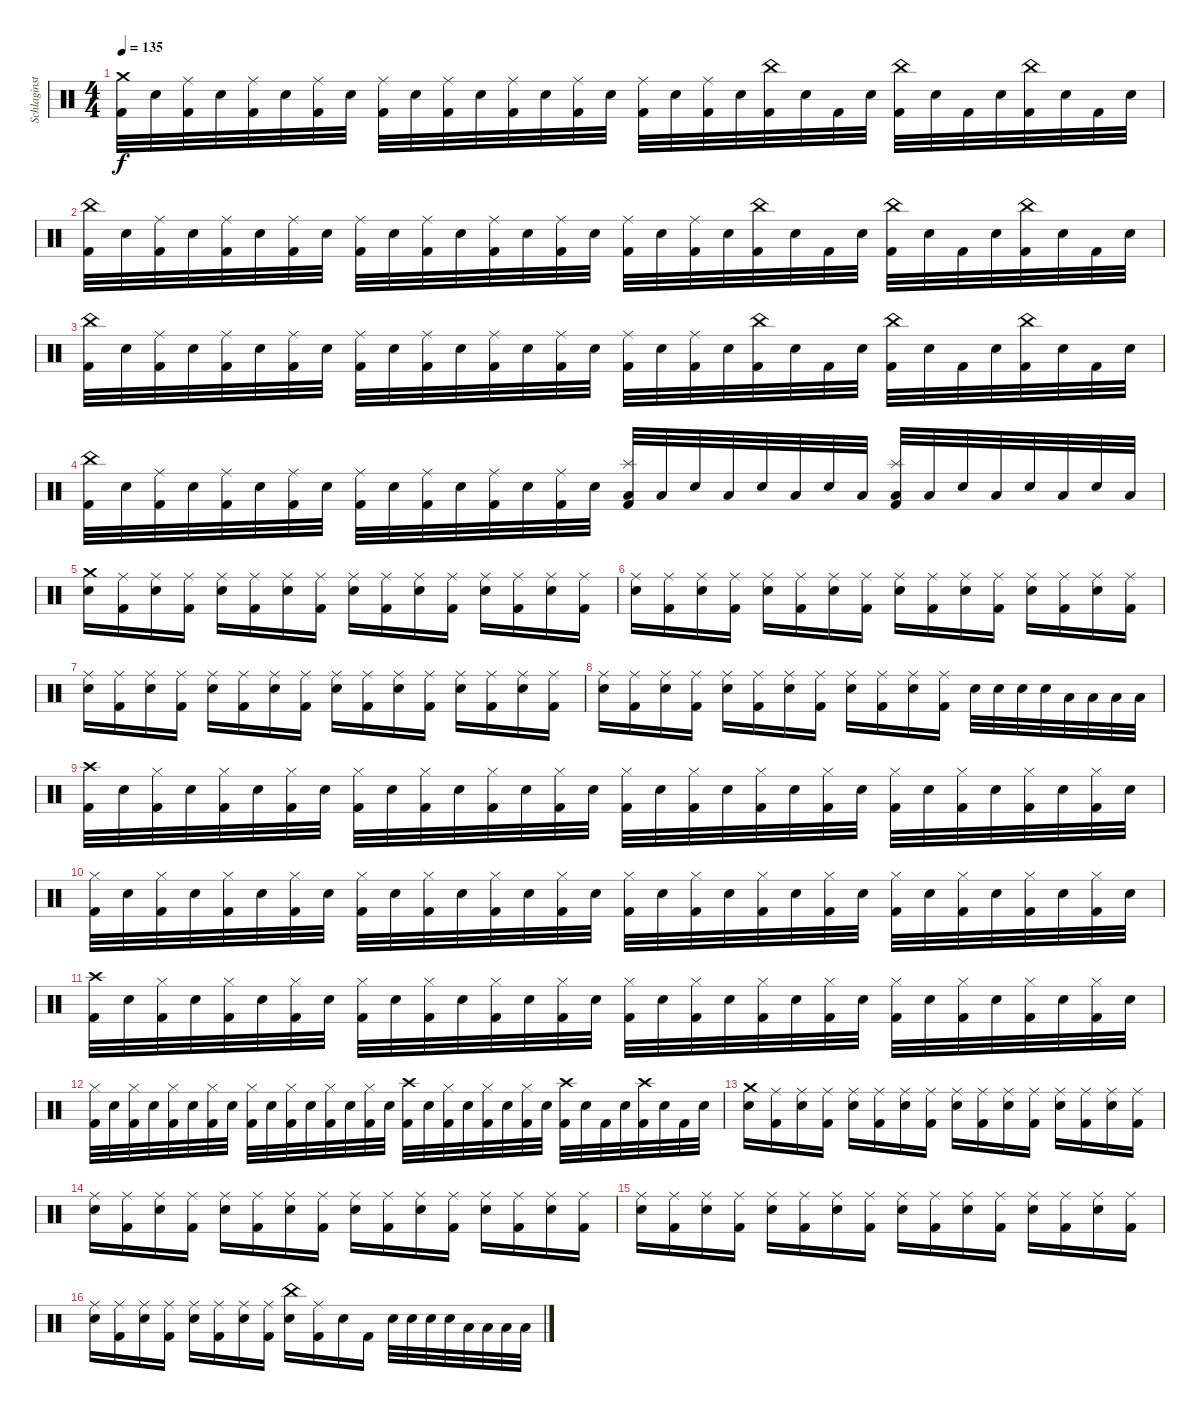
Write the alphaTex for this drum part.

\track ("Schlaginstrumente - Auswahl" "Schlaginst") {instrument percussion}
\staff {score}
\articulation defaults
\ts (4 4)
\tempo 135
\clef neutral
\ks c
("Crash medium (hit)" "Kick (hit) 2").32{dy f} "Electric Snare (hit)".32 ("Ride (middle)" "Kick (hit) 2").32 "Electric Snare (hit)".32 ("Ride (middle)" "Kick (hit) 2").32 "Electric Snare (hit)".32 ("Ride (middle)" "Kick (hit) 2").32 "Electric Snare (hit)".32 ("Ride (middle)" "Kick (hit) 2").32 "Electric Snare (hit)".32 ("Ride (middle)" "Kick (hit) 2").32 "Electric Snare (hit)".32 ("Ride (middle)" "Kick (hit) 2").32 "Electric Snare (hit)".32 ("Ride (middle)" "Kick (hit) 2").32 "Electric Snare (hit)".32 ("Ride (middle)" "Kick (hit) 2").32 "Electric Snare (hit)".32 ("Ride (middle)" "Kick (hit) 2").32 "Electric Snare (hit)".32 ("China (hit)" "Kick (hit) 2").32 "Electric Snare (hit)".32 "Kick (hit) 2".32 "Electric Snare (hit)".32 ("China (hit)" "Kick (hit) 2").32 "Electric Snare (hit)".32 "Kick (hit) 2".32 "Electric Snare (hit)".32 ("China (hit)" "Kick (hit) 2").32 "Electric Snare (hit)".32 "Kick (hit) 2".32 "Electric Snare (hit)".32 |
("China (hit)" "Kick (hit) 2").32 "Electric Snare (hit)".32 ("Ride (middle)" "Kick (hit) 2").32 "Electric Snare (hit)".32 ("Ride (middle)" "Kick (hit) 2").32 "Electric Snare (hit)".32 ("Ride (middle)" "Kick (hit) 2").32 "Electric Snare (hit)".32 ("Ride (middle)" "Kick (hit) 2").32 "Electric Snare (hit)".32 ("Ride (middle)" "Kick (hit) 2").32 "Electric Snare (hit)".32 ("Ride (middle)" "Kick (hit) 2").32 "Electric Snare (hit)".32 ("Ride (middle)" "Kick (hit) 2").32 "Electric Snare (hit)".32 ("Ride (middle)" "Kick (hit) 2").32 "Electric Snare (hit)".32 ("Ride (middle)" "Kick (hit) 2").32 "Electric Snare (hit)".32 ("China (hit)" "Kick (hit) 2").32 "Electric Snare (hit)".32 "Kick (hit) 2".32 "Electric Snare (hit)".32 ("China (hit)" "Kick (hit) 2").32 "Electric Snare (hit)".32 "Kick (hit) 2".32 "Electric Snare (hit)".32 ("China (hit)" "Kick (hit) 2").32 "Electric Snare (hit)".32 "Kick (hit) 2".32 "Electric Snare (hit)".32 |
("China (hit)" "Kick (hit) 2").32 "Electric Snare (hit)".32 ("Ride (middle)" "Kick (hit) 2").32 "Electric Snare (hit)".32 ("Ride (middle)" "Kick (hit) 2").32 "Electric Snare (hit)".32 ("Ride (middle)" "Kick (hit) 2").32 "Electric Snare (hit)".32 ("Ride (middle)" "Kick (hit) 2").32 "Electric Snare (hit)".32 ("Ride (middle)" "Kick (hit) 2").32 "Electric Snare (hit)".32 ("Ride (middle)" "Kick (hit) 2").32 "Electric Snare (hit)".32 ("Ride (middle)" "Kick (hit) 2").32 "Electric Snare (hit)".32 ("Ride (middle)" "Kick (hit) 2").32 "Electric Snare (hit)".32 ("Ride (middle)" "Kick (hit) 2").32 "Electric Snare (hit)".32 ("China (hit)" "Kick (hit) 2").32 "Electric Snare (hit)".32 "Kick (hit) 2".32 "Electric Snare (hit)".32 ("China (hit)" "Kick (hit) 2").32 "Electric Snare (hit)".32 "Kick (hit) 2".32 "Electric Snare (hit)".32 ("China (hit)" "Kick (hit) 2").32 "Electric Snare (hit)".32 "Kick (hit) 2".32 "Electric Snare (hit)".32 |
("China (hit)" "Kick (hit) 2").32 "Electric Snare (hit)".32 ("Ride (middle)" "Kick (hit) 2").32 "Electric Snare (hit)".32 ("Ride (middle)" "Kick (hit) 2").32 "Electric Snare (hit)".32 ("Ride (middle)" "Kick (hit) 2").32 "Electric Snare (hit)".32 ("Ride (middle)" "Kick (hit) 2").32 "Electric Snare (hit)".32 ("Ride (middle)" "Kick (hit) 2").32 "Electric Snare (hit)".32 ("Ride (middle)" "Kick (hit) 2").32 "Electric Snare (hit)".32 ("Ride (middle)" "Kick (hit) 2").32 "Electric Snare (hit)".32 ("Splash (hit)" "Low Tom (hit)" "Kick (hit) 2").32 "Low Tom (hit)".32 "Electric Snare (hit)".32 "Low Tom (hit)".32 "Electric Snare (hit)".32 "Low Tom (hit)".32 "Electric Snare (hit)".32 "Low Tom (hit)".32 ("Splash (hit)" "Low Tom (hit)" "Kick (hit) 2").32 "Low Tom (hit)".32 "Electric Snare (hit)".32 "Low Tom (hit)".32 "Electric Snare (hit)".32 "Low Tom (hit)".32 "Electric Snare (hit)".32 "Low Tom (hit)".32 |
("Crash medium (hit)" "Electric Snare (hit)").16 ("Ride (middle)" "Kick (hit) 2").16 ("Ride (middle)" "Electric Snare (hit)").16 ("Ride (middle)" "Kick (hit) 2").16 ("Ride (middle)" "Electric Snare (hit)").16 ("Ride (middle)" "Kick (hit) 2").16 ("Ride (middle)" "Electric Snare (hit)").16 ("Ride (middle)" "Kick (hit) 2").16 ("Ride (middle)" "Electric Snare (hit)").16 ("Ride (middle)" "Kick (hit) 2").16 ("Ride (middle)" "Electric Snare (hit)").16 ("Ride (middle)" "Kick (hit) 2").16 ("Ride (middle)" "Electric Snare (hit)").16 ("Ride (middle)" "Kick (hit) 2").16 ("Ride (middle)" "Electric Snare (hit)").16 ("Ride (middle)" "Kick (hit) 2").16 |
("Ride (middle)" "Electric Snare (hit)").16 ("Ride (middle)" "Kick (hit) 2").16 ("Ride (middle)" "Electric Snare (hit)").16 ("Ride (middle)" "Kick (hit) 2").16 ("Ride (middle)" "Electric Snare (hit)").16 ("Ride (middle)" "Kick (hit) 2").16 ("Ride (middle)" "Electric Snare (hit)").16 ("Ride (middle)" "Kick (hit) 2").16 ("Ride (middle)" "Electric Snare (hit)").16 ("Ride (middle)" "Kick (hit) 2").16 ("Ride (middle)" "Electric Snare (hit)").16 ("Ride (middle)" "Kick (hit) 2").16 ("Ride (middle)" "Electric Snare (hit)").16 ("Ride (middle)" "Kick (hit) 2").16 ("Ride (middle)" "Electric Snare (hit)").16 ("Ride (middle)" "Kick (hit) 2").16 |
("Ride (middle)" "Electric Snare (hit)").16 ("Ride (middle)" "Kick (hit) 2").16 ("Ride (middle)" "Electric Snare (hit)").16 ("Ride (middle)" "Kick (hit) 2").16 ("Ride (middle)" "Electric Snare (hit)").16 ("Ride (middle)" "Kick (hit) 2").16 ("Ride (middle)" "Electric Snare (hit)").16 ("Ride (middle)" "Kick (hit) 2").16 ("Ride (middle)" "Electric Snare (hit)").16 ("Ride (middle)" "Kick (hit) 2").16 ("Ride (middle)" "Electric Snare (hit)").16 ("Ride (middle)" "Kick (hit) 2").16 ("Ride (middle)" "Electric Snare (hit)").16 ("Ride (middle)" "Kick (hit) 2").16 ("Ride (middle)" "Electric Snare (hit)").16 ("Ride (middle)" "Kick (hit) 2").16 |
("Ride (middle)" "Electric Snare (hit)").16 ("Ride (middle)" "Kick (hit) 2").16 ("Ride (middle)" "Electric Snare (hit)").16 ("Ride (middle)" "Kick (hit) 2").16 ("Ride (middle)" "Electric Snare (hit)").16 ("Ride (middle)" "Kick (hit) 2").16 ("Ride (middle)" "Electric Snare (hit)").16 ("Ride (middle)" "Kick (hit) 2").16 ("Ride (middle)" "Electric Snare (hit)").16 ("Ride (middle)" "Kick (hit) 2").16 ("Ride (middle)" "Electric Snare (hit)").16 ("Ride (middle)" "Kick (hit) 2").16 "Electric Snare (hit)".32 "Electric Snare (hit)".32 "Electric Snare (hit)".32 "Electric Snare (hit)".32 "Low Tom (hit)".32 "Low Tom (hit)".32 "Low Tom (hit)".32 "Low Tom (hit)".32 |
("Crash high (hit)" "Kick (hit) 2").32 "Electric Snare (hit)".32 ("Hi-Hat (closed)" "Kick (hit) 2").32 "Electric Snare (hit)".32 ("Hi-Hat (closed)" "Kick (hit) 2").32 "Electric Snare (hit)".32 ("Hi-Hat (closed)" "Kick (hit) 2").32 "Electric Snare (hit)".32 ("Hi-Hat (closed)" "Kick (hit) 2").32 "Electric Snare (hit)".32 ("Hi-Hat (closed)" "Kick (hit) 2").32 "Electric Snare (hit)".32 ("Hi-Hat (closed)" "Kick (hit) 2").32 "Electric Snare (hit)".32 ("Hi-Hat (closed)" "Kick (hit) 2").32 "Electric Snare (hit)".32 ("Hi-Hat (closed)" "Kick (hit) 2").32 "Electric Snare (hit)".32 ("Hi-Hat (closed)" "Kick (hit) 2").32 "Electric Snare (hit)".32 ("Hi-Hat (closed)" "Kick (hit) 2").32 "Electric Snare (hit)".32 ("Hi-Hat (closed)" "Kick (hit) 2").32 "Electric Snare (hit)".32 ("Hi-Hat (closed)" "Kick (hit) 2").32 "Electric Snare (hit)".32 ("Hi-Hat (closed)" "Kick (hit) 2").32 "Electric Snare (hit)".32 ("Hi-Hat (closed)" "Kick (hit) 2").32 "Electric Snare (hit)".32 ("Hi-Hat (closed)" "Kick (hit) 2").32 "Electric Snare (hit)".32 |
("Hi-Hat (closed)" "Kick (hit) 2").32 "Electric Snare (hit)".32 ("Hi-Hat (closed)" "Kick (hit) 2").32 "Electric Snare (hit)".32 ("Hi-Hat (closed)" "Kick (hit) 2").32 "Electric Snare (hit)".32 ("Hi-Hat (closed)" "Kick (hit) 2").32 "Electric Snare (hit)".32 ("Hi-Hat (closed)" "Kick (hit) 2").32 "Electric Snare (hit)".32 ("Hi-Hat (closed)" "Kick (hit) 2").32 "Electric Snare (hit)".32 ("Hi-Hat (closed)" "Kick (hit) 2").32 "Electric Snare (hit)".32 ("Hi-Hat (closed)" "Kick (hit) 2").32 "Electric Snare (hit)".32 ("Hi-Hat (closed)" "Kick (hit) 2").32 "Electric Snare (hit)".32 ("Hi-Hat (closed)" "Kick (hit) 2").32 "Electric Snare (hit)".32 ("Hi-Hat (closed)" "Kick (hit) 2").32 "Electric Snare (hit)".32 ("Hi-Hat (closed)" "Kick (hit) 2").32 "Electric Snare (hit)".32 ("Hi-Hat (closed)" "Kick (hit) 2").32 "Electric Snare (hit)".32 ("Hi-Hat (closed)" "Kick (hit) 2").32 "Electric Snare (hit)".32 ("Hi-Hat (closed)" "Kick (hit) 2").32 "Electric Snare (hit)".32 ("Hi-Hat (closed)" "Kick (hit) 2").32 "Electric Snare (hit)".32 |
("Crash high (hit)" "Kick (hit) 2").32 "Electric Snare (hit)".32 ("Hi-Hat (closed)" "Kick (hit) 2").32 "Electric Snare (hit)".32 ("Hi-Hat (closed)" "Kick (hit) 2").32 "Electric Snare (hit)".32 ("Hi-Hat (closed)" "Kick (hit) 2").32 "Electric Snare (hit)".32 ("Hi-Hat (closed)" "Kick (hit) 2").32 "Electric Snare (hit)".32 ("Hi-Hat (closed)" "Kick (hit) 2").32 "Electric Snare (hit)".32 ("Hi-Hat (closed)" "Kick (hit) 2").32 "Electric Snare (hit)".32 ("Hi-Hat (closed)" "Kick (hit) 2").32 "Electric Snare (hit)".32 ("Hi-Hat (closed)" "Kick (hit) 2").32 "Electric Snare (hit)".32 ("Hi-Hat (closed)" "Kick (hit) 2").32 "Electric Snare (hit)".32 ("Hi-Hat (closed)" "Kick (hit) 2").32 "Electric Snare (hit)".32 ("Hi-Hat (closed)" "Kick (hit) 2").32 "Electric Snare (hit)".32 ("Hi-Hat (closed)" "Kick (hit) 2").32 "Electric Snare (hit)".32 ("Hi-Hat (closed)" "Kick (hit) 2").32 "Electric Snare (hit)".32 ("Hi-Hat (closed)" "Kick (hit) 2").32 "Electric Snare (hit)".32 ("Hi-Hat (closed)" "Kick (hit) 2").32 "Electric Snare (hit)".32 |
("Hi-Hat (closed)" "Kick (hit) 2").32 "Electric Snare (hit)".32 ("Hi-Hat (closed)" "Kick (hit) 2").32 "Electric Snare (hit)".32 ("Hi-Hat (closed)" "Kick (hit) 2").32 "Electric Snare (hit)".32 ("Hi-Hat (closed)" "Kick (hit) 2").32 "Electric Snare (hit)".32 ("Hi-Hat (closed)" "Kick (hit) 2").32 "Electric Snare (hit)".32 ("Hi-Hat (closed)" "Kick (hit) 2").32 "Electric Snare (hit)".32 ("Hi-Hat (closed)" "Kick (hit) 2").32 "Electric Snare (hit)".32 ("Hi-Hat (closed)" "Kick (hit) 2").32 "Electric Snare (hit)".32 ("Crash high (hit)" "Kick (hit) 2").32 "Electric Snare (hit)".32 ("Hi-Hat (closed)" "Kick (hit) 2").32 "Electric Snare (hit)".32 ("Hi-Hat (closed)" "Kick (hit) 2").32 "Electric Snare (hit)".32 ("Hi-Hat (closed)" "Kick (hit) 2").32 "Electric Snare (hit)".32 ("Crash high (hit)" "Kick (hit) 2").32 "Electric Snare (hit)".32 "Kick (hit) 2".32 "Electric Snare (hit)".32 ("Crash high (hit)" "Kick (hit) 2").32 "Electric Snare (hit)".32 "Kick (hit) 2".32 "Electric Snare (hit)".32 |
("Crash medium (hit)" "Electric Snare (hit)").16 ("Ride (middle)" "Kick (hit) 2").16 ("Ride (middle)" "Electric Snare (hit)").16 ("Ride (middle)" "Kick (hit) 2").16 ("Ride (middle)" "Electric Snare (hit)").16 ("Ride (middle)" "Kick (hit) 2").16 ("Ride (middle)" "Electric Snare (hit)").16 ("Ride (middle)" "Kick (hit) 2").16 ("Ride (middle)" "Electric Snare (hit)").16 ("Ride (middle)" "Kick (hit) 2").16 ("Ride (middle)" "Electric Snare (hit)").16 ("Ride (middle)" "Kick (hit) 2").16 ("Ride (middle)" "Electric Snare (hit)").16 ("Ride (middle)" "Kick (hit) 2").16 ("Ride (middle)" "Electric Snare (hit)").16 ("Ride (middle)" "Kick (hit) 2").16 |
("Ride (middle)" "Electric Snare (hit)").16 ("Ride (middle)" "Kick (hit) 2").16 ("Ride (middle)" "Electric Snare (hit)").16 ("Ride (middle)" "Kick (hit) 2").16 ("Ride (middle)" "Electric Snare (hit)").16 ("Ride (middle)" "Kick (hit) 2").16 ("Ride (middle)" "Electric Snare (hit)").16 ("Ride (middle)" "Kick (hit) 2").16 ("Ride (middle)" "Electric Snare (hit)").16 ("Ride (middle)" "Kick (hit) 2").16 ("Ride (middle)" "Electric Snare (hit)").16 ("Ride (middle)" "Kick (hit) 2").16 ("Ride (middle)" "Electric Snare (hit)").16 ("Ride (middle)" "Kick (hit) 2").16 ("Ride (middle)" "Electric Snare (hit)").16 ("Ride (middle)" "Kick (hit) 2").16 |
("Ride (middle)" "Electric Snare (hit)").16 ("Ride (middle)" "Kick (hit) 2").16 ("Ride (middle)" "Electric Snare (hit)").16 ("Ride (middle)" "Kick (hit) 2").16 ("Ride (middle)" "Electric Snare (hit)").16 ("Ride (middle)" "Kick (hit) 2").16 ("Ride (middle)" "Electric Snare (hit)").16 ("Ride (middle)" "Kick (hit) 2").16 ("Ride (middle)" "Electric Snare (hit)").16 ("Ride (middle)" "Kick (hit) 2").16 ("Ride (middle)" "Electric Snare (hit)").16 ("Ride (middle)" "Kick (hit) 2").16 ("Ride (middle)" "Electric Snare (hit)").16 ("Ride (middle)" "Kick (hit) 2").16 ("Ride (middle)" "Electric Snare (hit)").16 ("Ride (middle)" "Kick (hit) 2").16 |
("Ride (middle)" "Electric Snare (hit)").16 ("Ride (middle)" "Kick (hit) 2").16 ("Ride (middle)" "Electric Snare (hit)").16 ("Ride (middle)" "Kick (hit) 2").16 ("Ride (middle)" "Electric Snare (hit)").16 ("Ride (middle)" "Kick (hit) 2").16 ("Ride (middle)" "Electric Snare (hit)").16 ("Ride (middle)" "Kick (hit) 2").16 ("China (hit)" "Electric Snare (hit)").16 ("Ride (middle)" "Kick (hit) 2").16 "Electric Snare (hit)".16 "Kick (hit) 2".16 "Electric Snare (hit)".32 "Electric Snare (hit)".32 "Electric Snare (hit)".32 "Electric Snare (hit)".32 "Low Tom (hit)".32 "Low Tom (hit)".32 "Low Tom (hit)".32 "Low Tom (hit)".32
